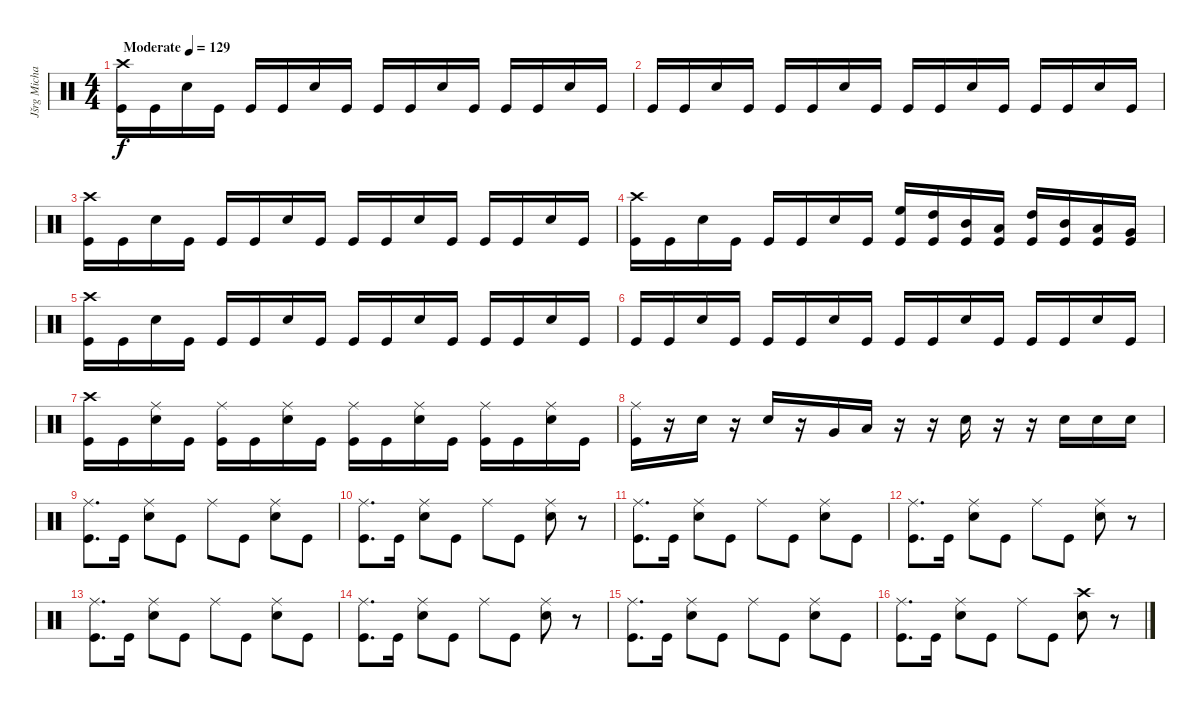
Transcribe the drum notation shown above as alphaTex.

\track ("Jšrg Michael" "Jšrg Micha") {instrument percussion bank 177}
\staff {score}
\articulation defaults
\ts (4 4)
\tempo (129 "Moderate")
\clef neutral
\ks c
("Kick (hit)" "Crash high (hit)").16{dy f} "Kick (hit)".16 "Snare (hit) 2".16 "Kick (hit)".16 "Kick (hit)".16 "Kick (hit)".16 "Snare (hit) 2".16 "Kick (hit)".16 "Kick (hit)".16 "Kick (hit)".16 "Snare (hit) 2".16 "Kick (hit)".16 "Kick (hit)".16 "Kick (hit)".16 "Snare (hit) 2".16 "Kick (hit)".16 |
"Kick (hit)".16 "Kick (hit)".16 "Snare (hit) 2".16 "Kick (hit)".16 "Kick (hit)".16 "Kick (hit)".16 "Snare (hit) 2".16 "Kick (hit)".16 "Kick (hit)".16 "Kick (hit)".16 "Snare (hit) 2".16 "Kick (hit)".16 "Kick (hit)".16 "Kick (hit)".16 "Snare (hit) 2".16 "Kick (hit)".16 |
("Kick (hit)" "Crash high (hit)").16 "Kick (hit)".16 "Snare (hit) 2".16 "Kick (hit)".16 "Kick (hit)".16 "Kick (hit)".16 "Snare (hit) 2".16 "Kick (hit)".16 "Kick (hit)".16 "Kick (hit)".16 "Snare (hit) 2".16 "Kick (hit)".16 "Kick (hit)".16 "Kick (hit)".16 "Snare (hit) 2".16 "Kick (hit)".16 |
("Kick (hit)" "Crash high (hit)").16 "Kick (hit)".16 "Snare (hit) 2".16 "Kick (hit)".16 "Kick (hit)".16 "Kick (hit)".16 "Snare (hit) 2".16 "Kick (hit)".16 ("Kick (hit)" "High Floor Tom (hit)").16 ("Kick (hit)" "High Tom (hit)").16 ("Kick (hit)" "Mid Tom (hit)").16 ("Kick (hit)" "Low Tom (hit)").16 ("Kick (hit)" "High Tom (hit)").16 ("Kick (hit)" "Mid Tom (hit)").16 ("Kick (hit)" "Low Tom (hit)").16 ("Kick (hit)" "Very Low Tom (hit)").16 |
("Kick (hit)" "Crash high (hit)").16 "Kick (hit)".16 "Snare (hit) 2".16 "Kick (hit)".16 "Kick (hit)".16 "Kick (hit)".16 "Snare (hit) 2".16 "Kick (hit)".16 "Kick (hit)".16 "Kick (hit)".16 "Snare (hit) 2".16 "Kick (hit)".16 "Kick (hit)".16 "Kick (hit)".16 "Snare (hit) 2".16 "Kick (hit)".16 |
"Kick (hit)".16 "Kick (hit)".16 "Snare (hit) 2".16 "Kick (hit)".16 "Kick (hit)".16 "Kick (hit)".16 "Snare (hit) 2".16 "Kick (hit)".16 "Kick (hit)".16 "Kick (hit)".16 "Snare (hit) 2".16 "Kick (hit)".16 "Kick (hit)".16 "Kick (hit)".16 "Snare (hit) 2".16 "Kick (hit)".16 |
("Kick (hit)" "Crash high (hit)").16 "Kick (hit)".16 ("Snare (hit) 2" "Ride (middle)").16 "Kick (hit)".16 ("Kick (hit)" "Ride (middle)").16 "Kick (hit)".16 ("Snare (hit) 2" "Ride (middle)").16 "Kick (hit)".16 ("Kick (hit)" "Ride (middle)").16 "Kick (hit)".16 ("Snare (hit) 2" "Ride (middle)").16 "Kick (hit)".16 ("Kick (hit)" "Ride (middle)").16 "Kick (hit)".16 ("Snare (hit) 2" "Ride (middle)").16 "Kick (hit)".16 |
("Kick (hit)" "Ride (middle)").16 r.16 "Snare (hit) 2".16 r.16 "Snare (hit) 2".16 r.16 "Very Low Tom (hit)".16 "Low Floor Tom (hit)".16 r.16 r.16 "Snare (hit) 2".16 r.16 r.16 "Snare (hit) 2".16 "Snare (hit) 2".16 "Snare (hit) 2".16 |
("Kick (hit)" "Ride (middle)").8{d} "Kick (hit)".16 ("Snare (hit) 2" "Ride (middle)").8 "Kick (hit)".8 "Ride (middle)".8 "Kick (hit)".8 ("Snare (hit) 2" "Ride (middle)").8 "Kick (hit)".8 |
("Kick (hit)" "Ride (middle)").8{d} "Kick (hit)".16 ("Snare (hit) 2" "Ride (middle)").8 "Kick (hit)".8 "Ride (middle)".8 "Kick (hit)".8 ("Snare (hit) 2" "Ride (middle)").8 r.8 |
("Kick (hit)" "Ride (middle)").8{d} "Kick (hit)".16 ("Snare (hit) 2" "Ride (middle)").8 "Kick (hit)".8 "Ride (middle)".8 "Kick (hit)".8 ("Snare (hit) 2" "Ride (middle)").8 "Kick (hit)".8 |
("Kick (hit)" "Ride (middle)").8{d} "Kick (hit)".16 ("Snare (hit) 2" "Ride (middle)").8 "Kick (hit)".8 "Ride (middle)".8 "Kick (hit)".8 ("Snare (hit) 2" "Ride (middle)").8 r.8 |
("Kick (hit)" "Ride (middle)").8{d} "Kick (hit)".16 ("Snare (hit) 2" "Ride (middle)").8 "Kick (hit)".8 "Ride (middle)".8 "Kick (hit)".8 ("Snare (hit) 2" "Ride (middle)").8 "Kick (hit)".8 |
("Kick (hit)" "Ride (middle)").8{d} "Kick (hit)".16 ("Snare (hit) 2" "Ride (middle)").8 "Kick (hit)".8 "Ride (middle)".8 "Kick (hit)".8 ("Snare (hit) 2" "Ride (middle)").8 r.8 |
("Kick (hit)" "Ride (middle)").8{d} "Kick (hit)".16 ("Snare (hit) 2" "Ride (middle)").8 "Kick (hit)".8 "Ride (middle)".8 "Kick (hit)".8 ("Snare (hit) 2" "Ride (middle)").8 "Kick (hit)".8 |
("Kick (hit)" "Ride (middle)").8{d} "Kick (hit)".16 ("Snare (hit) 2" "Ride (middle)").8 "Kick (hit)".8 "Ride (middle)".8 "Kick (hit)".8 ("Snare (hit) 2" "Crash high (hit)").8 r.8
